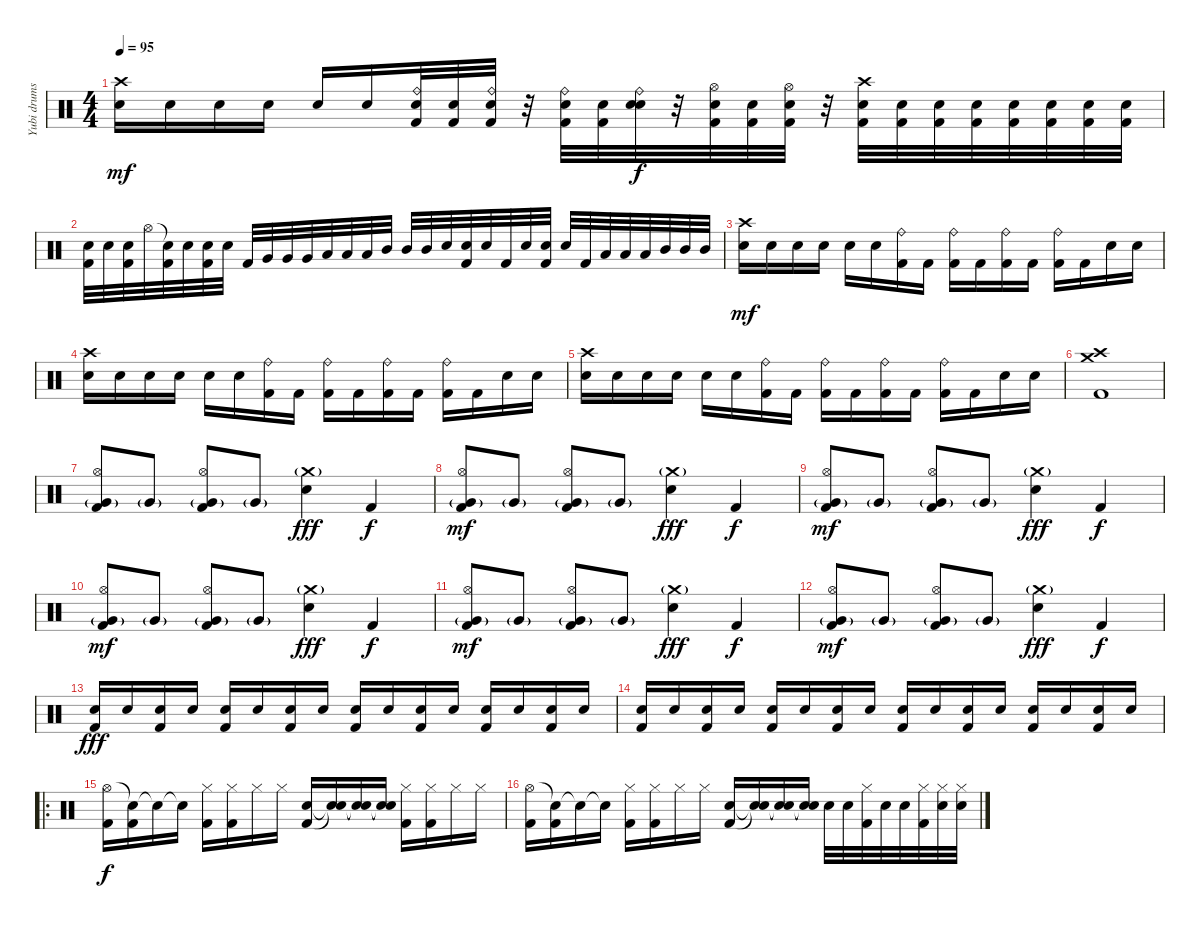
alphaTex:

\track ("Yubi drums" "Yubi drums") {instrument percussion}
\staff {score}
\articulation defaults
\ts (4 4)
\tempo 95
\clef neutral
\ks c
("Crash high (hit)" "Snare (hit) 2").16{dy mf} "Snare (hit) 2".16 "Snare (hit) 2".16 "Snare (hit) 2".16 "Snare (hit) 2".16 "Snare (hit) 2".16 ("Ride (bell)" "Snare (hit) 2" "Kick (hit) 2").32 ("Snare (hit) 2" "Kick (hit) 2").32 ("Ride (bell)" "Snare (hit) 2" "Kick (hit) 2").32 r.32 ("Ride (bell)" "Snare (hit) 2" "Kick (hit) 2").32 ("Snare (hit) 2" "Kick (hit) 2").32 ("Ride (bell)" "Snare (hit) 2" "Snare (hit) 2").32{dy f} r.32 ("Hi-Hat (open)" "Kick (hit) 2" "Snare (hit) 2").32 ("Kick (hit) 2" "Snare (hit) 2").32 ("Hi-Hat (open)" "Kick (hit) 2" "Snare (hit) 2").32 r.32 ("Crash high (hit)" "Kick (hit) 2" "Snare (hit) 2").32 ("Kick (hit) 2" "Snare (hit) 2").32 ("Kick (hit) 2" "Snare (hit) 2").32 ("Kick (hit) 2" "Snare (hit) 2").32 ("Kick (hit) 2" "Snare (hit) 2").32 ("Kick (hit) 2" "Snare (hit) 2").32 ("Kick (hit) 2" "Snare (hit) 2").32 ("Kick (hit) 2" "Snare (hit) 2").32 |
("Snare (hit) 2" "Kick (hit) 2").32 "Snare (hit) 2".32 ("Snare (hit) 2" "Kick (hit) 2").32 "Hi-Hat (open)".32 ("Snare (hit)"{t} "Kick (hit) 2").32 "Snare (hit) 2".32 ("Snare (hit) 2" "Kick (hit) 2").32 "Snare (hit) 2".32 "Kick (hit) 2".32 "Very Low Tom (hit)".32 "Very Low Tom (hit)".32 "Very Low Tom (hit)".32 "Low Tom (hit)".32 "Low Tom (hit)".32 "Low Tom (hit)".32 "Mid Tom (hit)".32 "Mid Tom (hit)".32 "Mid Tom (hit)".32 "Snare (hit) 2".32 ("Snare (hit) 2" "Kick (hit) 2").32 "Snare (hit) 2".32 "Kick (hit) 2".32 "Snare (hit) 2".32 ("Snare (hit) 2" "Kick (hit) 2").32 "Snare (hit) 2".32 "Kick (hit) 2".32 "Low Tom (hit)".32 "Low Tom (hit)".32 "Low Tom (hit)".32 "Mid Tom (hit)".32 "Mid Tom (hit)".32 "Mid Tom (hit)".32 |
("Crash high (hit)" "Snare (hit) 2").16{dy mf} "Snare (hit) 2".16 "Snare (hit) 2".16 "Snare (hit) 2".16 "Snare (hit) 2".16 "Snare (hit) 2".16 ("Ride (bell)" "Kick (hit) 2").16 "Kick (hit) 2".16 ("Ride (bell)" "Kick (hit) 2").16 "Kick (hit) 2".16 ("Ride (bell)" "Kick (hit) 2").16 "Kick (hit) 2".16 ("Ride (bell)" "Kick (hit) 2").16 "Kick (hit) 2".16 "Snare (hit) 2".16 "Snare (hit) 2".16 |
("Crash high (hit)" "Snare (hit) 2").16 "Snare (hit) 2".16 "Snare (hit) 2".16 "Snare (hit) 2".16 "Snare (hit) 2".16 "Snare (hit) 2".16 ("Ride (bell)" "Kick (hit) 2").16 "Kick (hit) 2".16 ("Ride (bell)" "Kick (hit) 2").16 "Kick (hit) 2".16 ("Ride (bell)" "Kick (hit) 2").16 "Kick (hit) 2".16 ("Ride (bell)" "Kick (hit) 2").16 "Kick (hit) 2".16 "Snare (hit) 2".16 "Snare (hit) 2".16 |
("Crash high (hit)" "Snare (hit) 2").16 "Snare (hit) 2".16 "Snare (hit) 2".16 "Snare (hit) 2".16 "Snare (hit) 2".16 "Snare (hit) 2".16 ("Ride (bell)" "Kick (hit) 2").16 "Kick (hit) 2".16 ("Ride (bell)" "Kick (hit) 2").16 "Kick (hit) 2".16 ("Ride (bell)" "Kick (hit) 2").16 "Kick (hit) 2".16 ("Ride (bell)" "Kick (hit) 2").16 "Kick (hit) 2".16 "Snare (hit) 2".16 "Snare (hit) 2".16 |
("Crash medium (hit)" "Crash high (hit)" "Kick (hit) 2").1 |
("Hi-Hat (open)" "Very Low Tom (hit)"{g} "Kick (hit) 2").8 "Very Low Tom (hit)"{g}.8 ("Hi-Hat (open)" "Very Low Tom (hit)"{g} "Kick (hit) 2").8 "Very Low Tom (hit)"{g}.8 ("Crash medium (hit)"{g} "Electric Snare (hit)").4{dy fff} "Kick (hit) 2".4{dy f} |
("Hi-Hat (open)" "Very Low Tom (hit)"{g} "Kick (hit) 2").8{dy mf} "Very Low Tom (hit)"{g}.8 ("Hi-Hat (open)" "Very Low Tom (hit)"{g} "Kick (hit) 2").8 "Very Low Tom (hit)"{g}.8 ("Crash medium (hit)"{g} "Electric Snare (hit)").4{dy fff} "Kick (hit) 2".4{dy f} |
("Hi-Hat (open)" "Very Low Tom (hit)"{g} "Kick (hit) 2").8{dy mf} "Very Low Tom (hit)"{g}.8 ("Hi-Hat (open)" "Very Low Tom (hit)"{g} "Kick (hit) 2").8 "Very Low Tom (hit)"{g}.8 ("Crash medium (hit)"{g} "Electric Snare (hit)").4{dy fff} "Kick (hit) 2".4{dy f} |
("Hi-Hat (open)" "Very Low Tom (hit)"{g} "Kick (hit) 2").8{dy mf} "Very Low Tom (hit)"{g}.8 ("Hi-Hat (open)" "Very Low Tom (hit)"{g} "Kick (hit) 2").8 "Very Low Tom (hit)"{g}.8 ("Crash medium (hit)"{g} "Electric Snare (hit)").4{dy fff} "Kick (hit) 2".4{dy f} |
("Hi-Hat (open)" "Very Low Tom (hit)"{g} "Kick (hit) 2").8{dy mf} "Very Low Tom (hit)"{g}.8 ("Hi-Hat (open)" "Very Low Tom (hit)"{g} "Kick (hit) 2").8 "Very Low Tom (hit)"{g}.8 ("Crash medium (hit)"{g} "Electric Snare (hit)").4{dy fff} "Kick (hit) 2".4{dy f} |
("Hi-Hat (open)" "Very Low Tom (hit)"{g} "Kick (hit) 2").8{dy mf} "Very Low Tom (hit)"{g}.8 ("Hi-Hat (open)" "Very Low Tom (hit)"{g} "Kick (hit) 2").8 "Very Low Tom (hit)"{g}.8 ("Crash medium (hit)"{g} "Electric Snare (hit)").4{dy fff} "Kick (hit) 2".4{dy f} |
("Electric Snare (hit)" "Kick (hit) 2").16{dy fff} "Electric Snare (hit)".16 ("Electric Snare (hit)" "Kick (hit) 2").16 "Electric Snare (hit)".16 ("Electric Snare (hit)" "Kick (hit) 2").16 "Electric Snare (hit)".16 ("Electric Snare (hit)" "Kick (hit) 2").16 "Electric Snare (hit)".16 ("Electric Snare (hit)" "Kick (hit) 2").16 "Electric Snare (hit)".16 ("Electric Snare (hit)" "Kick (hit) 2").16 "Electric Snare (hit)".16 ("Electric Snare (hit)" "Kick (hit) 2").16 "Electric Snare (hit)".16 ("Electric Snare (hit)" "Kick (hit) 2").16 "Electric Snare (hit)".16 |
("Electric Snare (hit)" "Kick (hit) 2").16 "Electric Snare (hit)".16 ("Electric Snare (hit)" "Kick (hit) 2").16 "Electric Snare (hit)".16 ("Electric Snare (hit)" "Kick (hit) 2").16 "Electric Snare (hit)".16 ("Electric Snare (hit)" "Kick (hit) 2").16 "Electric Snare (hit)".16 ("Electric Snare (hit)" "Kick (hit) 2").16 "Electric Snare (hit)".16 ("Electric Snare (hit)" "Kick (hit) 2").16 "Electric Snare (hit)".16 ("Electric Snare (hit)" "Kick (hit) 2").16 "Electric Snare (hit)".16 ("Electric Snare (hit)" "Kick (hit) 2").16 "Electric Snare (hit)".16 |
\ro
("Hi-Hat (open)" "Kick (hit) 2").16{dy f} ("Snare (hit)"{t} "Kick (hit) 2").16 "Snare (hit)"{t}.16 "Snare (hit)"{t}.16 ("Hi-Hat (closed)" "Kick (hit) 2").16 ("Hi-Hat (closed)" "Kick (hit) 2").16 "Hi-Hat (closed)".16 "Hi-Hat (closed)".16 ("Snare (hit) 2" "Kick (hit) 2").16 ("Snare (hit)"{t} "Snare (hit)"{t}).16 ("Snare (hit)"{t} "Snare (hit)"{t}).16 ("Snare (hit)"{t} "Snare (hit)"{t}).16 ("Hi-Hat (closed)" "Kick (hit) 2").16 ("Hi-Hat (closed)" "Kick (hit) 2").16 "Hi-Hat (closed)".16 "Hi-Hat (closed)".16 |
("Hi-Hat (open)" "Kick (hit) 2").16 ("Snare (hit)"{t} "Kick (hit) 2").16 "Snare (hit)"{t}.16 "Snare (hit)"{t}.16 ("Hi-Hat (closed)" "Kick (hit) 2").16 ("Hi-Hat (closed)" "Kick (hit) 2").16 "Hi-Hat (closed)".16 "Hi-Hat (closed)".16 ("Snare (hit) 2" "Kick (hit) 2").16 ("Snare (hit)"{t} "Snare (hit)"{t}).16 ("Snare (hit)"{t} "Snare (hit)"{t}).16 ("Snare (hit)"{t} "Snare (hit)"{t}).16 "Snare (hit) 2".32 "Snare (hit) 2".32 ("Hi-Hat (closed)" "Kick (hit) 2").32 "Snare (hit) 2".32 "Snare (hit) 2".32 ("Hi-Hat (closed)" "Kick (hit) 2").32 ("Hi-Hat (closed)" "Snare (hit) 2").32 ("Hi-Hat (closed)" "Snare (hit) 2").32
